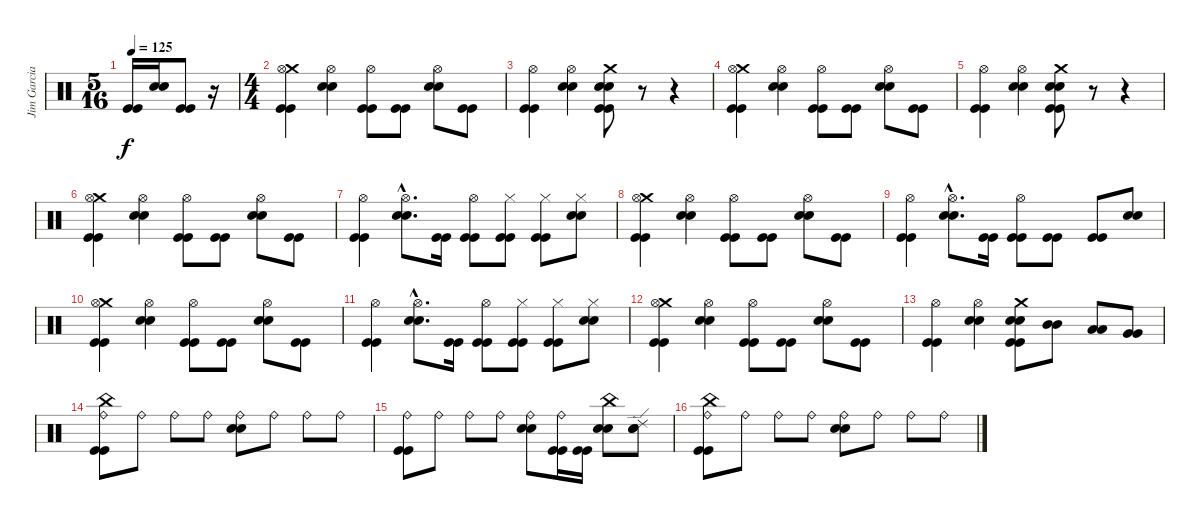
\track ("Jim Garcia" "Jim Garcia") {instrument percussion}
\staff {score}
\articulation defaults
\ts (5 16)
\tempo 125
\clef neutral
\ks c
("Kick (hit)" "Kick (hit)").16{dy f} ("Snare (hit) 2" "Snare (hit) 2").16 ("Kick (hit)" "Kick (hit)").8 r.16 |
\ts (4 4)
("Crash medium (hit)" "Hi-Hat (open)" "Kick (hit)" "Kick (hit)").4 ("Snare (hit) 2" "Snare (hit) 2" "Hi-Hat (open)").4 ("Hi-Hat (open)" "Kick (hit)" "Kick (hit)").8 ("Kick (hit)" "Kick (hit)").8 ("Snare (hit) 2" "Snare (hit) 2" "Hi-Hat (open)").8 ("Kick (hit)" "Kick (hit)").8 |
("Hi-Hat (open)" "Kick (hit)" "Kick (hit)").4 ("Snare (hit) 2" "Snare (hit) 2" "Hi-Hat (open)").4 ("Crash medium (hit)" "Snare (hit) 2" "Snare (hit) 2" "Kick (hit)" "Kick (hit)").8 r.8 r.4 |
("Crash medium (hit)" "Hi-Hat (open)" "Kick (hit)" "Kick (hit)").4 ("Snare (hit) 2" "Snare (hit) 2" "Hi-Hat (open)").4 ("Hi-Hat (open)" "Kick (hit)" "Kick (hit)").8 ("Kick (hit)" "Kick (hit)").8 ("Snare (hit) 2" "Snare (hit) 2" "Hi-Hat (open)").8 ("Kick (hit)" "Kick (hit)").8 |
("Hi-Hat (open)" "Kick (hit)" "Kick (hit)").4 ("Snare (hit) 2" "Snare (hit) 2" "Hi-Hat (open)").4 ("Crash medium (hit)" "Snare (hit) 2" "Snare (hit) 2" "Kick (hit)" "Kick (hit)").8 r.8 r.4 |
("Crash medium (hit)" "Hi-Hat (open)" "Kick (hit)" "Kick (hit)").4 ("Snare (hit) 2" "Snare (hit) 2" "Hi-Hat (open)").4 ("Hi-Hat (open)" "Kick (hit)" "Kick (hit)").8 ("Kick (hit)" "Kick (hit)").8 ("Snare (hit) 2" "Snare (hit) 2" "Hi-Hat (open)").8 ("Kick (hit)" "Kick (hit)").8 |
("Hi-Hat (open)" "Kick (hit)" "Kick (hit)").4 ("Snare (hit) 2"{hac} "Snare (hit) 2"{hac} "Hi-Hat (open)"{hac}).8{d} ("Kick (hit)" "Kick (hit)").16 ("Hi-Hat (open)" "Kick (hit)" "Kick (hit)").8 ("Hi-Hat (closed)" "Kick (hit)" "Kick (hit)").8 ("Hi-Hat (closed)" "Kick (hit)" "Kick (hit)").8 ("Snare (hit) 2" "Snare (hit) 2" "Hi-Hat (closed)").8 |
("Crash medium (hit)" "Hi-Hat (open)" "Kick (hit)" "Kick (hit)").4 ("Snare (hit) 2" "Snare (hit) 2" "Hi-Hat (open)").4 ("Hi-Hat (open)" "Kick (hit)" "Kick (hit)").8 ("Kick (hit)" "Kick (hit)").8 ("Snare (hit) 2" "Snare (hit) 2" "Hi-Hat (open)").8 ("Kick (hit)" "Kick (hit)").8 |
("Hi-Hat (open)" "Kick (hit)" "Kick (hit)").4 ("Snare (hit) 2"{hac} "Snare (hit) 2"{hac} "Hi-Hat (open)"{hac}).8{d} ("Kick (hit)" "Kick (hit)").16 ("Hi-Hat (open)" "Kick (hit)" "Kick (hit)").8 ("Kick (hit)" "Kick (hit)").8 ("Kick (hit)" "Kick (hit)").8 ("Snare (hit) 2" "Snare (hit) 2").8 |
("Crash medium (hit)" "Hi-Hat (open)" "Kick (hit)" "Kick (hit)").4 ("Snare (hit) 2" "Snare (hit) 2" "Hi-Hat (open)").4 ("Hi-Hat (open)" "Kick (hit)" "Kick (hit)").8 ("Kick (hit)" "Kick (hit)").8 ("Snare (hit) 2" "Snare (hit) 2" "Hi-Hat (open)").8 ("Kick (hit)" "Kick (hit)").8 |
("Hi-Hat (open)" "Kick (hit)" "Kick (hit)").4 ("Snare (hit) 2"{hac} "Snare (hit) 2"{hac} "Hi-Hat (open)"{hac}).8{d} ("Kick (hit)" "Kick (hit)").16 ("Hi-Hat (open)" "Kick (hit)" "Kick (hit)").8 ("Hi-Hat (closed)" "Kick (hit)" "Kick (hit)").8 ("Hi-Hat (closed)" "Kick (hit)" "Kick (hit)").8 ("Snare (hit) 2" "Snare (hit) 2" "Hi-Hat (closed)").8 |
("Crash medium (hit)" "Hi-Hat (open)" "Kick (hit)" "Kick (hit)").4 ("Snare (hit) 2" "Snare (hit) 2" "Hi-Hat (open)").4 ("Hi-Hat (open)" "Kick (hit)" "Kick (hit)").8 ("Kick (hit)" "Kick (hit)").8 ("Snare (hit) 2" "Snare (hit) 2" "Hi-Hat (open)").8 ("Kick (hit)" "Kick (hit)").8 |
("Hi-Hat (open)" "Kick (hit)" "Kick (hit)").4 ("Snare (hit) 2" "Snare (hit) 2" "Hi-Hat (open)").4 ("Crash medium (hit)" "Snare (hit) 2" "Snare (hit) 2" "Kick (hit)" "Kick (hit)").8 ("Mid Tom (hit)" "Mid Tom (hit)").8 ("Low Tom (hit)" "Low Tom (hit)").8 ("Very Low Tom (hit)" "Very Low Tom (hit)").8 |
("China (hit)" "Ride (bell)" "Kick (hit)" "Kick (hit)").8 "Ride (bell)".8 "Ride (bell)".8 "Ride (bell)".8 ("Snare (hit) 2" "Snare (hit) 2" "Ride (bell)").8 "Ride (bell)".8 "Ride (bell)".8 "Ride (bell)".8 |
("Ride (bell)" "Kick (hit)" "Kick (hit)").8 "Ride (bell)".8 "Ride (bell)".8 "Ride (bell)".8 ("Snare (hit) 2" "Snare (hit) 2" "Ride (bell)").8 ("Ride (bell)" "Kick (hit)" "Kick (hit)").16 ("Kick (hit)" "Kick (hit)").16 ("China (hit)" "Snare (hit) 2" "Snare (hit) 2").8 ("Ride (edge) 2" "Snare (hit) 2" "Snare (hit) 2").8 |
("China (hit)" "Ride (bell)" "Kick (hit)" "Kick (hit)").8 "Ride (bell)".8 "Ride (bell)".8 "Ride (bell)".8 ("Snare (hit) 2" "Snare (hit) 2" "Ride (bell)").8 "Ride (bell)".8 "Ride (bell)".8 "Ride (bell)".8
